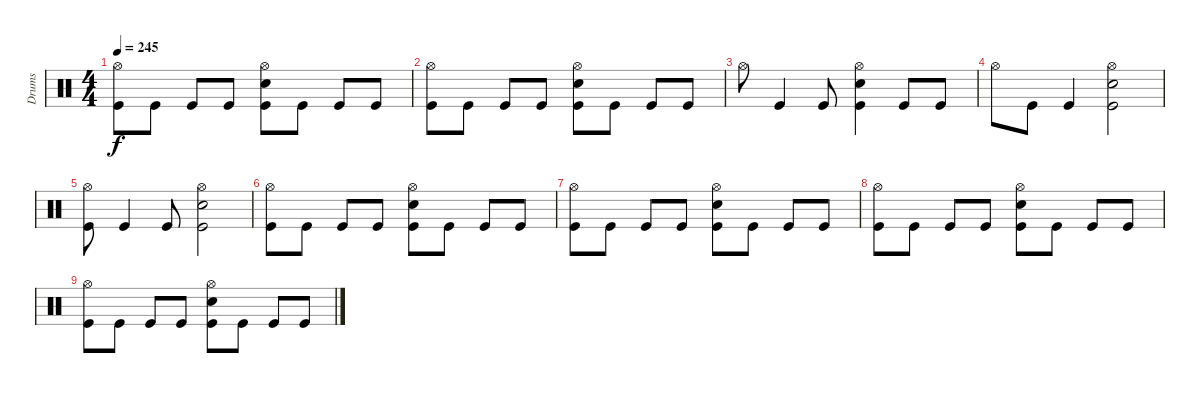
\track ("Drums" "Drums") {instrument percussion}
\staff {score}
\articulation defaults
\ts (4 4)
\tempo 245
\clef neutral
\ks c
("Hi-Hat (open)" "Kick (hit)").8{dy f} "Kick (hit)".8 "Kick (hit)".8 "Kick (hit)".8 ("Hi-Hat (open)" "Electric Snare (hit)" "Kick (hit)").8 "Kick (hit)".8 "Kick (hit)".8 "Kick (hit)".8 |
("Hi-Hat (open)" "Kick (hit)").8 "Kick (hit)".8 "Kick (hit)".8 "Kick (hit)".8 ("Hi-Hat (open)" "Electric Snare (hit)" "Kick (hit)").8 "Kick (hit)".8 "Kick (hit)".8 "Kick (hit)".8 |
"Hi-Hat (open)".8 "Kick (hit)".4 "Kick (hit)".8 ("Hi-Hat (open)" "Electric Snare (hit)" "Kick (hit)").4 "Kick (hit)".8 "Kick (hit)".8 |
"Hi-Hat (open)".8 "Kick (hit)".8 "Kick (hit)".4 ("Hi-Hat (open)" "Electric Snare (hit)" "Kick (hit)").2 |
("Hi-Hat (open)" "Kick (hit)").8 "Kick (hit)".4 "Kick (hit)".8 ("Hi-Hat (open)" "Electric Snare (hit)" "Kick (hit)").2{volume 0} |
("Hi-Hat (open)" "Kick (hit)").8 "Kick (hit)".8 "Kick (hit)".8 "Kick (hit)".8 ("Hi-Hat (open)" "Electric Snare (hit)" "Kick (hit)").8 "Kick (hit)".8 "Kick (hit)".8 "Kick (hit)".8 |
("Hi-Hat (open)" "Kick (hit)").8 "Kick (hit)".8 "Kick (hit)".8 "Kick (hit)".8 ("Hi-Hat (open)" "Electric Snare (hit)" "Kick (hit)").8 "Kick (hit)".8 "Kick (hit)".8 "Kick (hit)".8 |
("Hi-Hat (open)" "Kick (hit)").8 "Kick (hit)".8 "Kick (hit)".8 "Kick (hit)".8 ("Hi-Hat (open)" "Electric Snare (hit)" "Kick (hit)").8 "Kick (hit)".8 "Kick (hit)".8 "Kick (hit)".8 |
("Hi-Hat (open)" "Kick (hit)").8 "Kick (hit)".8 "Kick (hit)".8 "Kick (hit)".8 ("Hi-Hat (open)" "Electric Snare (hit)" "Kick (hit)").8 "Kick (hit)".8 "Kick (hit)".8 "Kick (hit)".8
